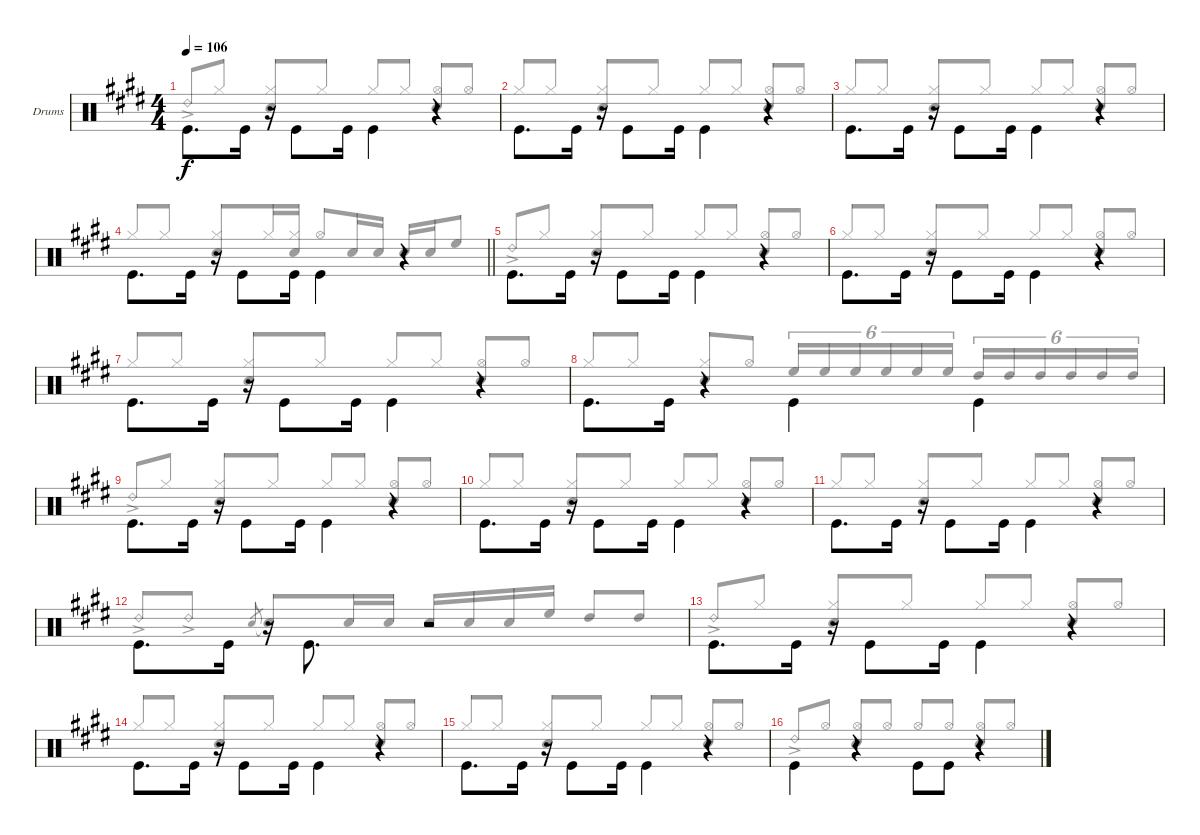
\bracketExtendMode groupsimilarinstruments
\firstSystemTrackNameOrientation horizontal
\otherSystemsTrackNameOrientation horizontal
\track ("Drums" "Drums") {instrument percussion}
\staff {score}
\articulation defaults
\voice
\ts (4 4)
\beaming (8 2 2 2 2)
\tempo 106
\clef neutral
\scale
1.05675
\ks e "Kick (hit)".8{d dy f beam invert} "Kick (hit)".16{beam split}
r.16 "Kick (hit)".8{beam invert} "Kick (hit)".16 "Kick (hit)".4{beam invert} r.4{beam invert} |
\scale
0.943253 "Kick (hit)".8{d beam invert} "Kick (hit)".16{beam split} r.16{beam split} "Kick (hit)".8{beam invert} "Kick (hit)".16 "Kick (hit)".4{beam invert} r.4{beam invert} |
\scale
1.02648 "Kick (hit)".8{d beam invert} "Kick (hit)".16{beam split} r.16{beam split} "Kick (hit)".8{beam invert} "Kick (hit)".16 "Kick (hit)".4{beam invert} r.4{beam invert} |
\scale
0.973518
\barLineRight lightlight "Kick (hit)".8{d beam invert} "Kick (hit)".16{beam split}
r.16{beam split} "Kick (hit)".8{beam invert} "Kick (hit)".16 "Kick (hit)".4{beam invert beam split} r.4{beam invert beam split} |
\scale
1.02648 "Kick (hit)".8{d beam invert} "Kick (hit)".16{beam split} r.16 "Kick (hit)".8{beam invert} "Kick (hit)".16 "Kick (hit)".4{beam invert} r.4{beam invert} |
\scale
0.973518 "Kick (hit)".8{d beam invert} "Kick (hit)".16{beam split} r.16{beam split} "Kick (hit)".8{beam invert} "Kick (hit)".16 "Kick (hit)".4{beam invert} r.4{beam invert} |
\scale
1.02648 "Kick (hit)".8{d beam invert} "Kick (hit)".16{beam split} r.16{beam split} "Kick (hit)".8{beam invert} "Kick (hit)".16 "Kick (hit)".4{beam invert} r.4{beam invert} |
\scale
0.973518 "Kick (hit)".8{d beam invert} "Kick (hit)".16{beam split} r.4{beam split} "Kick (hit)".4{beam invert} "Kick (hit)".4{beam invert} |
\scale
1.02648 "Kick (hit)".8{d beam invert} "Kick (hit)".16{beam split} r.16 "Kick (hit)".8{beam invert} "Kick (hit)".16 "Kick (hit)".4{beam invert} r.4{beam invert} |
\scale
0.973518 "Kick (hit)".8{d beam invert} "Kick (hit)".16{beam split} r.16{beam split} "Kick (hit)".8{beam invert} "Kick (hit)".16 "Kick (hit)".4{beam invert} r.4{beam invert} |
\scale
1.02648 "Kick (hit)".8{d beam invert} "Kick (hit)".16{beam split} r.16{beam split} "Kick (hit)".8{beam invert} "Kick (hit)".16 "Kick (hit)".4{beam invert} r.4{beam invert} |
\scale
0.973518 "Kick (hit)".8{d beam invert} "Kick (hit)".16{beam split} r.16{beam split} "Kick (hit)".8{d beam invert} r.2 |
\scale
1.02648 "Kick (hit)".8{d beam invert} "Kick (hit)".16{beam split} r.16 "Kick (hit)".8{beam invert} "Kick (hit)".16 "Kick (hit)".4{beam invert} r.4{beam invert} |
\scale
0.973518 "Kick (hit)".8{d beam invert} "Kick (hit)".16{beam split} r.16{beam split} "Kick (hit)".8{beam invert} "Kick (hit)".16 "Kick (hit)".4{beam invert} r.4{beam invert} |
\scale
1.02648 "Kick (hit)".8{d beam invert} "Kick (hit)".16{beam split} r.16{beam split} "Kick (hit)".8{beam invert} "Kick (hit)".16 "Kick (hit)".4{beam invert} r.4{beam invert} |
\scale
0.973518 "Kick (hit)".4{beam invert beam split} r.4{beam split} "Kick (hit)".8{beam invert} "Kick (hit)".8 r.4
\voice
\clef neutral
\ottava regular
\simile none
\scale
1.05675
\ks e "Ride (bell) 2"{ac}.8{dy f beam invert} "Hi-Hat (closed)".8
("Hi-Hat (closed)" "Snare (hit) 2").8{beam invert} "Hi-Hat (closed)".8 "Hi-Hat (closed)".8{beam invert} "Hi-Hat (closed)".8 ("Hi-Hat (open)" "Snare (hit) 2").8{beam invert} "Hi-Hat (open)".8 |
\scale
0.943253 "Hi-Hat (closed)".8{beam invert} "Hi-Hat (closed)".8 ("Hi-Hat (closed)" "Snare (hit) 2").8{beam invert} "Hi-Hat (closed)".8 "Hi-Hat (closed)".8{beam invert} "Hi-Hat (closed)".8 ("Hi-Hat (open)" "Snare (hit) 2").8{beam invert} "Hi-Hat (open)".8 |
\scale
1.02648 "Hi-Hat (closed)".8{beam invert} "Hi-Hat (closed)".8 ("Hi-Hat (closed)" "Snare (hit) 2").8{beam invert} "Hi-Hat (closed)".8 "Hi-Hat (closed)".8{beam invert} "Hi-Hat (closed)".8 ("Hi-Hat (open)" "Snare (hit) 2").8{beam invert} "Hi-Hat (open)".8 |
\scale
0.973518
\barLineRight lightlight "Hi-Hat (closed)".8{beam invert} "Hi-Hat (closed)".8{beam split}
("Hi-Hat (closed)" "Snare (hit) 2").8{beam invert beam merge} "Hi-Hat (closed)".16{beam invert beam merge} ("Hi-Hat (closed)" "Snare (hit) 2").16{beam invert beam split} "Hi-Hat (open)".8{beam invert beam merge} "Snare (hit) 2".16{beam invert beam merge} "Snare (hit) 2".16{beam invert beam split} "Snare (hit) 2".16{beam invert beam merge} "Snare (hit) 2".16{beam invert beam merge} "High Floor Tom (hit)".8{beam invert beam split} |
\scale
1.02648 "Ride (bell) 2"{ac}.8{beam invert} "Hi-Hat (closed)".8 ("Hi-Hat (closed)" "Snare (hit) 2").8{beam invert} "Hi-Hat (closed)".8 "Hi-Hat (closed)".8{beam invert} "Hi-Hat (closed)".8 ("Hi-Hat (open)" "Snare (hit) 2").8{beam invert} "Hi-Hat (open)".8 |
\scale
0.973518 "Hi-Hat (closed)".8{beam invert} "Hi-Hat (closed)".8 ("Hi-Hat (closed)" "Snare (hit) 2").8{beam invert} "Hi-Hat (closed)".8 "Hi-Hat (closed)".8{beam invert} "Hi-Hat (closed)".8 ("Hi-Hat (open)" "Snare (hit) 2").8{beam invert} "Hi-Hat (open)".8 |
\scale
1.02648 "Hi-Hat (closed)".8{beam invert} "Hi-Hat (closed)".8 ("Hi-Hat (closed)" "Snare (hit) 2").8{beam invert} "Hi-Hat (closed)".8 "Hi-Hat (closed)".8{beam invert} "Hi-Hat (closed)".8 ("Hi-Hat (open)" "Snare (hit) 2").8{beam invert} "Hi-Hat (open)".8 |
\scale
0.973518 "Hi-Hat (closed)".8{beam invert} "Hi-Hat (closed)".8 ("Hi-Hat (closed)" "Snare (hit) 2").8{beam invert} "Hi-Hat (open)".8 "High Floor Tom (hit)".16{tu (6 4) beam invert} "High Floor Tom (hit)".16{tu (6 4)} "High Floor Tom (hit)".16{tu (6 4)} "High Floor Tom (hit)".16{tu (6 4)} "High Floor Tom (hit)".16{tu (6 4)} "High Floor Tom (hit)".16{tu (6 4)} "High Tom (hit)".16{tu (6 4) beam invert} "High Tom (hit)".16{tu (6 4)} "High Tom (hit)".16{tu (6 4)} "High Tom (hit)".16{tu (6 4)} "High Tom (hit)".16{tu (6 4)} "High Tom (hit)".16{tu (6 4)} |
\scale
1.02648 "Ride (bell) 2"{ac}.8{beam invert} "Hi-Hat (closed)".8 ("Hi-Hat (closed)" "Snare (hit) 2").8{beam invert} "Hi-Hat (closed)".8 "Hi-Hat (closed)".8{beam invert} "Hi-Hat (closed)".8 ("Hi-Hat (open)" "Snare (hit) 2").8{beam invert} "Hi-Hat (open)".8 |
\scale
0.973518 "Hi-Hat (closed)".8{beam invert} "Hi-Hat (closed)".8 ("Hi-Hat (closed)" "Snare (hit) 2").8{beam invert} "Hi-Hat (closed)".8 "Hi-Hat (closed)".8{beam invert} "Hi-Hat (closed)".8 ("Hi-Hat (open)" "Snare (hit) 2").8{beam invert} "Hi-Hat (open)".8 |
\scale
1.02648 "Hi-Hat (closed)".8{beam invert} "Hi-Hat (closed)".8 ("Hi-Hat (closed)" "Snare (hit) 2").8{beam invert} "Hi-Hat (closed)".8 "Hi-Hat (closed)".8{beam invert} "Hi-Hat (closed)".8 ("Hi-Hat (open)" "Snare (hit) 2").8{beam invert} "Hi-Hat (open)".8 |
\scale
0.973518 "Ride (bell) 2"{ac}.8{beam invert} "Ride (bell) 2"{ac}.8{beam split} "Snare (hit) 2".8{gr beam invert beam merge} "Snare (hit) 2"{t}.8{beam invert beam merge} "Snare (hit) 2".16{beam merge} "Snare (hit) 2".16{beam split} "Snare (hit) 2".16{beam invert beam merge} "Snare (hit) 2".16{beam merge} "Snare (hit) 2".16{beam merge} "High Floor Tom (hit)".16{beam split} "High Tom (hit)".8{beam invert} "High Tom (hit)".8 |
\scale
1.02648 "Ride (bell) 2"{ac}.8{beam invert} "Hi-Hat (closed)".8 ("Hi-Hat (closed)" "Snare (hit) 2").8{beam invert} "Hi-Hat (closed)".8 "Hi-Hat (closed)".8{beam invert} "Hi-Hat (closed)".8 ("Hi-Hat (open)" "Snare (hit) 2").8{beam invert} "Hi-Hat (open)".8 |
\scale
0.973518 "Hi-Hat (closed)".8{beam invert} "Hi-Hat (closed)".8 ("Hi-Hat (closed)" "Snare (hit) 2").8{beam invert} "Hi-Hat (closed)".8 "Hi-Hat (closed)".8{beam invert} "Hi-Hat (closed)".8 ("Hi-Hat (open)" "Snare (hit) 2").8{beam invert} "Hi-Hat (open)".8 |
\scale
1.02648 "Hi-Hat (closed)".8{beam invert} "Hi-Hat (closed)".8 ("Hi-Hat (closed)" "Snare (hit) 2").8{beam invert} "Hi-Hat (closed)".8 "Hi-Hat (closed)".8{beam invert} "Hi-Hat (closed)".8 ("Hi-Hat (open)" "Snare (hit) 2").8{beam invert} "Hi-Hat (open)".8 |
\scale
0.973518 "Ride (bell) 2"{ac}.8{beam invert} "Hi-Hat (open)".8 ("Hi-Hat (open)" "Snare (hit) 2").8{beam invert} "Hi-Hat (open)".8 "Hi-Hat (open)".8{beam invert} "Hi-Hat (open)".8 ("Hi-Hat (open)" "Snare (hit) 2").8{beam invert} "Hi-Hat (open)".8
